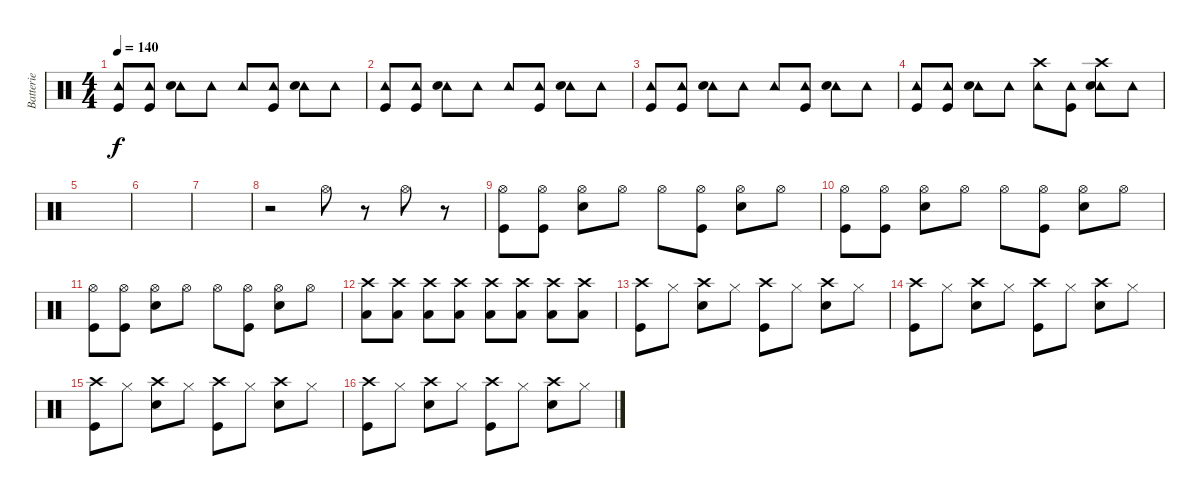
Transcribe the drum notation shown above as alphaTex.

\track ("Batterie" "Batterie") {instrument percussion}
\staff {score}
\articulation defaults
\ts (4 4)
\tempo 140
\clef neutral
\ks c
("Tambourine (hit)" "Kick (hit)").8{dy f} ("Tambourine (hit)" "Kick (hit)").8 ("Tambourine (hit)" "Electric Snare (hit)").8 "Tambourine (hit)".8 "Tambourine (hit)".8 ("Tambourine (hit)" "Kick (hit)").8 ("Tambourine (hit)" "Electric Snare (hit)").8 "Tambourine (hit)".8 |
("Tambourine (hit)" "Kick (hit)").8 ("Tambourine (hit)" "Kick (hit)").8 ("Tambourine (hit)" "Electric Snare (hit)").8 "Tambourine (hit)".8 "Tambourine (hit)".8 ("Tambourine (hit)" "Kick (hit)").8 ("Tambourine (hit)" "Electric Snare (hit)").8 "Tambourine (hit)".8 |
("Tambourine (hit)" "Kick (hit)").8 ("Tambourine (hit)" "Kick (hit)").8 ("Tambourine (hit)" "Electric Snare (hit)").8 "Tambourine (hit)".8 "Tambourine (hit)".8 ("Tambourine (hit)" "Kick (hit)").8 ("Tambourine (hit)" "Electric Snare (hit)").8 "Tambourine (hit)".8 |
("Tambourine (hit)" "Kick (hit)").8 ("Tambourine (hit)" "Kick (hit)").8 ("Tambourine (hit)" "Electric Snare (hit)").8 "Tambourine (hit)".8 ("Tambourine (hit)" "Crash high (hit)").8 ("Tambourine (hit)" "Kick (hit)").8 ("Tambourine (hit)" "Crash high (hit)" "Electric Snare (hit)").8 "Tambourine (hit)".8 |
|
|
|
r.2 "Hi-Hat (open)".8 r.8 "Hi-Hat (open)".8 r.8 |
("Hi-Hat (open)" "Kick (hit)").8 ("Hi-Hat (open)" "Kick (hit)").8 ("Hi-Hat (open)" "Electric Snare (hit)").8 "Hi-Hat (open)".8 "Hi-Hat (open)".8 ("Hi-Hat (open)" "Kick (hit)").8 ("Hi-Hat (open)" "Electric Snare (hit)").8 "Hi-Hat (open)".8 |
("Hi-Hat (open)" "Kick (hit)").8 ("Hi-Hat (open)" "Kick (hit)").8 ("Hi-Hat (open)" "Electric Snare (hit)").8 "Hi-Hat (open)".8 "Hi-Hat (open)".8 ("Hi-Hat (open)" "Kick (hit)").8 ("Hi-Hat (open)" "Electric Snare (hit)").8 "Hi-Hat (open)".8 |
("Hi-Hat (open)" "Kick (hit)").8 ("Hi-Hat (open)" "Kick (hit)").8 ("Hi-Hat (open)" "Electric Snare (hit)").8 "Hi-Hat (open)".8 "Hi-Hat (open)".8 ("Hi-Hat (open)" "Kick (hit)").8 ("Hi-Hat (open)" "Electric Snare (hit)").8 "Hi-Hat (open)".8 |
("Crash high (hit)" "Low Floor Tom (hit)").8 ("Crash high (hit)" "Low Floor Tom (hit)").8 ("Crash high (hit)" "Low Floor Tom (hit)").8 ("Crash high (hit)" "Low Floor Tom (hit)").8 ("Crash high (hit)" "Low Floor Tom (hit)").8 ("Crash high (hit)" "Low Floor Tom (hit)").8 ("Crash high (hit)" "Low Floor Tom (hit)").8 ("Crash high (hit)" "Low Floor Tom (hit)").8 |
("Crash high (hit)" "Kick (hit)").8 "Hi-Hat (closed)".8 ("Crash high (hit)" "Electric Snare (hit)").8 "Hi-Hat (closed)".8 ("Crash high (hit)" "Kick (hit)").8 "Hi-Hat (closed)".8 ("Crash high (hit)" "Electric Snare (hit)").8 "Hi-Hat (closed)".8 |
("Crash high (hit)" "Kick (hit)").8 "Hi-Hat (closed)".8 ("Crash high (hit)" "Electric Snare (hit)").8 "Hi-Hat (closed)".8 ("Crash high (hit)" "Kick (hit)").8 "Hi-Hat (closed)".8 ("Crash high (hit)" "Electric Snare (hit)").8 "Hi-Hat (closed)".8 |
("Crash high (hit)" "Kick (hit)").8 "Hi-Hat (closed)".8 ("Crash high (hit)" "Electric Snare (hit)").8 "Hi-Hat (closed)".8 ("Crash high (hit)" "Kick (hit)").8 "Hi-Hat (closed)".8 ("Crash high (hit)" "Electric Snare (hit)").8 "Hi-Hat (closed)".8 |
("Crash high (hit)" "Kick (hit)").8 "Hi-Hat (closed)".8 ("Crash high (hit)" "Electric Snare (hit)").8 "Hi-Hat (closed)".8 ("Crash high (hit)" "Kick (hit)").8 "Hi-Hat (closed)".8 ("Crash high (hit)" "Electric Snare (hit)").8 "Hi-Hat (closed)".8
